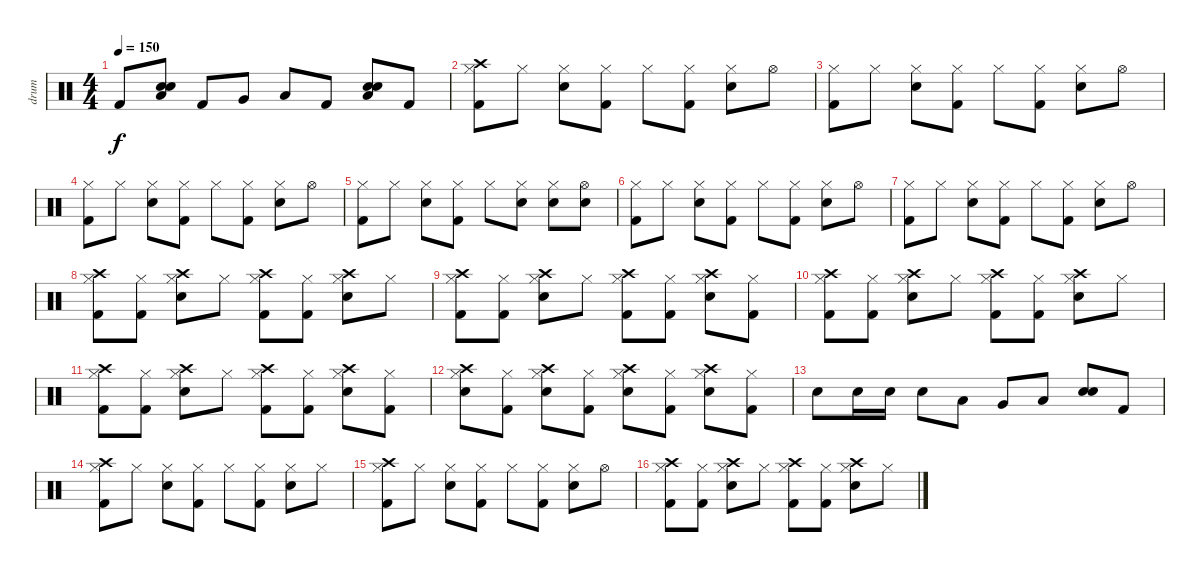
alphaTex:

\track ("drum" "drum") {instrument percussion}
\staff {score}
\articulation defaults
\ts (4 4)
\tempo 150
\clef neutral
\ks c "Kick (hit) 2".8{dy f}
("Electric Snare (hit)" "Electric Snare (hit)" "Low Tom (hit)").8 "Kick (hit) 2".8 "Very Low Tom (hit)".8 "Low Floor Tom (hit)".8 "Kick (hit) 2".8 ("Electric Snare (hit)" "Electric Snare (hit)" "Low Floor Tom (hit)").8 "Kick (hit) 2".8 |
("Crash high (hit)" "Hi-Hat (closed)" "Kick (hit) 2").8 "Hi-Hat (closed)".8 ("Hi-Hat (closed)" "Electric Snare (hit)").8 ("Hi-Hat (closed)" "Kick (hit) 2").8 "Hi-Hat (closed)".8 ("Hi-Hat (closed)" "Kick (hit) 2").8 ("Hi-Hat (closed)" "Electric Snare (hit)").8 "Hi-Hat (open)".8 |
("Hi-Hat (closed)" "Kick (hit) 2").8 "Hi-Hat (closed)".8 ("Hi-Hat (closed)" "Electric Snare (hit)").8 ("Hi-Hat (closed)" "Kick (hit) 2").8 "Hi-Hat (closed)".8 ("Hi-Hat (closed)" "Kick (hit) 2").8 ("Hi-Hat (closed)" "Electric Snare (hit)").8 "Hi-Hat (open)".8 |
("Hi-Hat (closed)" "Kick (hit) 2").8 "Hi-Hat (closed)".8 ("Hi-Hat (closed)" "Electric Snare (hit)").8 ("Hi-Hat (closed)" "Kick (hit) 2").8 "Hi-Hat (closed)".8 ("Hi-Hat (closed)" "Kick (hit) 2").8 ("Hi-Hat (closed)" "Electric Snare (hit)").8 "Hi-Hat (open)".8 |
("Hi-Hat (closed)" "Kick (hit) 2").8 "Hi-Hat (closed)".8 ("Hi-Hat (closed)" "Electric Snare (hit)").8 ("Hi-Hat (closed)" "Kick (hit) 2").8 "Hi-Hat (closed)".8 ("Hi-Hat (closed)" "Electric Snare (hit)").8 ("Hi-Hat (closed)" "Electric Snare (hit)").8 ("Hi-Hat (open)" "Electric Snare (hit)").8 |
("Hi-Hat (closed)" "Kick (hit) 2").8 "Hi-Hat (closed)".8 ("Hi-Hat (closed)" "Electric Snare (hit)").8 ("Hi-Hat (closed)" "Kick (hit) 2").8 "Hi-Hat (closed)".8 ("Hi-Hat (closed)" "Kick (hit) 2").8 ("Hi-Hat (closed)" "Electric Snare (hit)").8 "Hi-Hat (open)".8 |
("Hi-Hat (closed)" "Kick (hit) 2").8 "Hi-Hat (closed)".8 ("Hi-Hat (closed)" "Electric Snare (hit)").8 ("Hi-Hat (closed)" "Kick (hit) 2").8 "Hi-Hat (closed)".8 ("Hi-Hat (closed)" "Kick (hit) 2").8 ("Hi-Hat (closed)" "Electric Snare (hit)").8 "Hi-Hat (open)".8 |
("Crash high (hit)" "Hi-Hat (closed)" "Kick (hit) 2").8 ("Hi-Hat (closed)" "Kick (hit) 2").8 ("Crash high (hit)" "Hi-Hat (closed)" "Electric Snare (hit)").8 "Hi-Hat (closed)".8 ("Crash high (hit)" "Hi-Hat (closed)" "Kick (hit) 2").8 ("Hi-Hat (closed)" "Kick (hit) 2").8 ("Crash high (hit)" "Hi-Hat (closed)" "Electric Snare (hit)").8 "Hi-Hat (closed)".8 |
("Crash high (hit)" "Hi-Hat (closed)" "Kick (hit) 2").8 ("Hi-Hat (closed)" "Kick (hit) 2").8 ("Crash high (hit)" "Hi-Hat (closed)" "Electric Snare (hit)").8 "Hi-Hat (closed)".8 ("Crash high (hit)" "Hi-Hat (closed)" "Kick (hit) 2").8 ("Hi-Hat (closed)" "Kick (hit) 2").8 ("Crash high (hit)" "Hi-Hat (closed)" "Electric Snare (hit)").8 ("Hi-Hat (closed)" "Kick (hit) 2").8 |
("Crash high (hit)" "Hi-Hat (closed)" "Kick (hit) 2").8 ("Hi-Hat (closed)" "Kick (hit) 2").8 ("Crash high (hit)" "Hi-Hat (closed)" "Electric Snare (hit)").8 "Hi-Hat (closed)".8 ("Crash high (hit)" "Hi-Hat (closed)" "Kick (hit) 2").8 ("Hi-Hat (closed)" "Kick (hit) 2").8 ("Crash high (hit)" "Hi-Hat (closed)" "Electric Snare (hit)").8 "Hi-Hat (closed)".8 |
("Crash high (hit)" "Hi-Hat (closed)" "Kick (hit) 2").8 ("Hi-Hat (closed)" "Kick (hit) 2").8 ("Crash high (hit)" "Hi-Hat (closed)" "Electric Snare (hit)").8 "Hi-Hat (closed)".8 ("Crash high (hit)" "Hi-Hat (closed)" "Kick (hit) 2").8 ("Hi-Hat (closed)" "Kick (hit) 2").8 ("Crash high (hit)" "Hi-Hat (closed)" "Electric Snare (hit)").8 ("Hi-Hat (closed)" "Kick (hit) 2").8 |
("Crash high (hit)" "Hi-Hat (closed)" "Electric Snare (hit)").8 ("Hi-Hat (closed)" "Kick (hit) 2").8 ("Crash high (hit)" "Hi-Hat (closed)" "Electric Snare (hit)").8 ("Hi-Hat (closed)" "Kick (hit) 2").8 ("Crash high (hit)" "Hi-Hat (closed)" "Electric Snare (hit)").8 ("Hi-Hat (closed)" "Kick (hit) 2").8 ("Crash high (hit)" "Hi-Hat (closed)" "Electric Snare (hit)").8 ("Hi-Hat (closed)" "Kick (hit) 2").8 |
"Electric Snare (hit)".8 "Electric Snare (hit)".16 "Electric Snare (hit)".16 "Electric Snare (hit)".8 "Low Tom (hit)".8 "Very Low Tom (hit)".8 "Low Floor Tom (hit)".8 ("Electric Snare (hit)" "Electric Snare (hit)").8 "Kick (hit) 2".8 |
("Crash high (hit)" "Hi-Hat (closed)" "Kick (hit) 2").8 "Hi-Hat (closed)".8 ("Hi-Hat (closed)" "Electric Snare (hit)").8 ("Hi-Hat (closed)" "Kick (hit) 2").8 "Hi-Hat (closed)".8 ("Hi-Hat (closed)" "Kick (hit) 2").8 ("Hi-Hat (closed)" "Electric Snare (hit)").8 "Hi-Hat (closed)".8 |
("Crash high (hit)" "Hi-Hat (closed)" "Kick (hit) 2").8 "Hi-Hat (closed)".8 ("Hi-Hat (closed)" "Electric Snare (hit)").8 ("Hi-Hat (closed)" "Kick (hit) 2").8 "Hi-Hat (closed)".8 ("Hi-Hat (closed)" "Kick (hit) 2").8 ("Hi-Hat (closed)" "Electric Snare (hit)").8 "Hi-Hat (open)".8 |
("Crash high (hit)" "Hi-Hat (closed)" "Kick (hit) 2").8 ("Hi-Hat (closed)" "Kick (hit) 2").8 ("Crash high (hit)" "Hi-Hat (closed)" "Electric Snare (hit)").8 "Hi-Hat (closed)".8 ("Crash high (hit)" "Hi-Hat (closed)" "Kick (hit) 2").8 ("Hi-Hat (closed)" "Kick (hit) 2").8 ("Crash high (hit)" "Hi-Hat (closed)" "Electric Snare (hit)").8 "Hi-Hat (closed)".8
